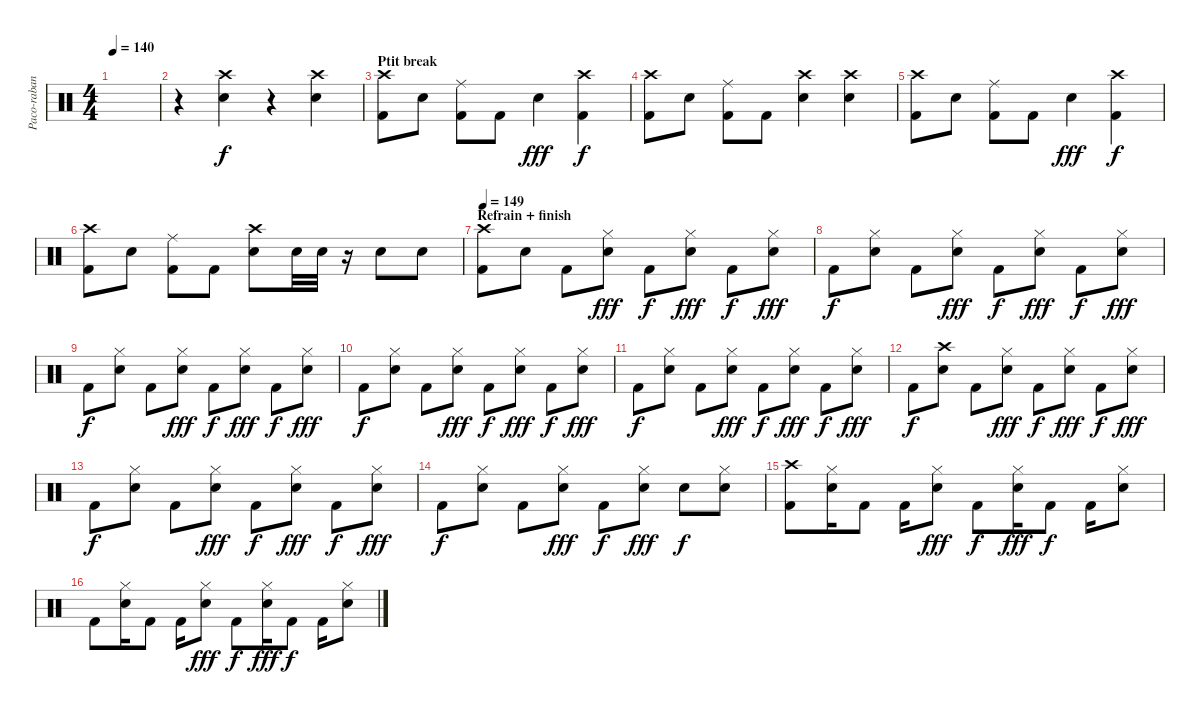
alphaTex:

\track ("Paco-rabane" "Paco-raban") {instrument percussion}
\staff {score}
\articulation defaults
\ts (4 4)
\tempo 140
\clef neutral
\ks c
|
r.4 ("Crash high (hit)" "Snare (hit) 2").4 r.4 ("Crash high (hit)" "Snare (hit) 2").4 |
\section ("" "Ptit break")
("Crash high (hit)" "Kick (hit) 2").8 "Snare (hit) 2".8 ("Ride (middle)" "Kick (hit) 2").8 "Kick (hit) 2".8 "Snare (hit) 2".4{dy fff} ("Crash high (hit)" "Kick (hit) 2").4{dy f} |
("Crash high (hit)" "Kick (hit) 2").8 "Snare (hit) 2".8 ("Ride (middle)" "Kick (hit) 2").8 "Kick (hit) 2".8 ("Crash high (hit)" "Snare (hit) 2").4 ("Crash high (hit)" "Snare (hit) 2").4 |
("Crash high (hit)" "Kick (hit) 2").8 "Snare (hit) 2".8 ("Ride (middle)" "Kick (hit) 2").8 "Kick (hit) 2".8 "Snare (hit) 2".4{dy fff} ("Crash high (hit)" "Kick (hit) 2").4{dy f} |
("Crash high (hit)" "Kick (hit) 2").8 "Snare (hit) 2".8 ("Ride (middle)" "Kick (hit) 2").8 "Kick (hit) 2".8 ("Crash high (hit)" "Snare (hit) 2").8 "Snare (hit) 2".32 "Snare (hit) 2".32 r.16 "Snare (hit) 2".8 "Snare (hit) 2".8 |
\section ("" "Refrain + finish")
\tempo 150
\tempo 149
("Crash high (hit)" "Kick (hit) 2").8 "Snare (hit) 2".8 "Kick (hit) 2".8 ("Hi-Hat (closed)" "Snare (hit) 2").8{dy fff} "Kick (hit) 2".8{dy f} ("Hi-Hat (closed)" "Snare (hit) 2").8{dy fff} "Kick (hit) 2".8{dy f} ("Hi-Hat (closed)" "Snare (hit) 2").8{dy fff} |
"Kick (hit) 2".8{dy f} ("Hi-Hat (closed)" "Snare (hit) 2").8 "Kick (hit) 2".8 ("Hi-Hat (closed)" "Snare (hit) 2").8{dy fff} "Kick (hit) 2".8{dy f} ("Hi-Hat (closed)" "Snare (hit) 2").8{dy fff} "Kick (hit) 2".8{dy f} ("Hi-Hat (closed)" "Snare (hit) 2").8{dy fff} |
"Kick (hit) 2".8{dy f} ("Hi-Hat (closed)" "Snare (hit) 2").8 "Kick (hit) 2".8 ("Hi-Hat (closed)" "Snare (hit) 2").8{dy fff} "Kick (hit) 2".8{dy f} ("Hi-Hat (closed)" "Snare (hit) 2").8{dy fff} "Kick (hit) 2".8{dy f} ("Hi-Hat (closed)" "Snare (hit) 2").8{dy fff} |
"Kick (hit) 2".8{dy f} ("Hi-Hat (closed)" "Snare (hit) 2").8 "Kick (hit) 2".8 ("Hi-Hat (closed)" "Snare (hit) 2").8{dy fff} "Kick (hit) 2".8{dy f} ("Hi-Hat (closed)" "Snare (hit) 2").8{dy fff} "Kick (hit) 2".8{dy f} ("Hi-Hat (closed)" "Snare (hit) 2").8{dy fff} |
"Kick (hit) 2".8{dy f} ("Hi-Hat (closed)" "Snare (hit) 2").8 "Kick (hit) 2".8 ("Hi-Hat (closed)" "Snare (hit) 2").8{dy fff} "Kick (hit) 2".8{dy f} ("Hi-Hat (closed)" "Snare (hit) 2").8{dy fff} "Kick (hit) 2".8{dy f} ("Hi-Hat (closed)" "Snare (hit) 2").8{dy fff} |
"Kick (hit) 2".8{dy f} ("Crash high (hit)" "Snare (hit) 2").8 "Kick (hit) 2".8 ("Hi-Hat (closed)" "Snare (hit) 2").8{dy fff} "Kick (hit) 2".8{dy f} ("Hi-Hat (closed)" "Snare (hit) 2").8{dy fff} "Kick (hit) 2".8{dy f} ("Hi-Hat (closed)" "Snare (hit) 2").8{dy fff} |
"Kick (hit) 2".8{dy f} ("Hi-Hat (closed)" "Snare (hit) 2").8 "Kick (hit) 2".8 ("Hi-Hat (closed)" "Snare (hit) 2").8{dy fff} "Kick (hit) 2".8{dy f} ("Hi-Hat (closed)" "Snare (hit) 2").8{dy fff} "Kick (hit) 2".8{dy f} ("Hi-Hat (closed)" "Snare (hit) 2").8{dy fff} |
"Kick (hit) 2".8{dy f} ("Hi-Hat (closed)" "Snare (hit) 2").8 "Kick (hit) 2".8 ("Hi-Hat (closed)" "Snare (hit) 2").8{dy fff} "Kick (hit) 2".8{dy f} ("Hi-Hat (closed)" "Snare (hit) 2").8{dy fff} "Snare (hit) 2".8{dy f} ("Hi-Hat (closed)" "Snare (hit) 2").8 |
("Crash high (hit)" "Kick (hit) 2").8 ("Hi-Hat (closed)" "Snare (hit) 2").16 "Kick (hit) 2".8 "Kick (hit) 2".16 ("Hi-Hat (closed)" "Snare (hit) 2").8{dy fff} "Kick (hit) 2".8{dy f} ("Hi-Hat (closed)" "Snare (hit) 2").16{dy fff} "Kick (hit) 2".8{dy f} "Kick (hit) 2".16 ("Hi-Hat (closed)" "Snare (hit) 2").8 |
"Kick (hit) 2".8 ("Hi-Hat (closed)" "Snare (hit) 2").16 "Kick (hit) 2".8 "Kick (hit) 2".16 ("Hi-Hat (closed)" "Snare (hit) 2").8{dy fff} "Kick (hit) 2".8{dy f} ("Hi-Hat (closed)" "Snare (hit) 2").16{dy fff} "Kick (hit) 2".8{dy f} "Kick (hit) 2".16 ("Hi-Hat (closed)" "Snare (hit) 2").8
